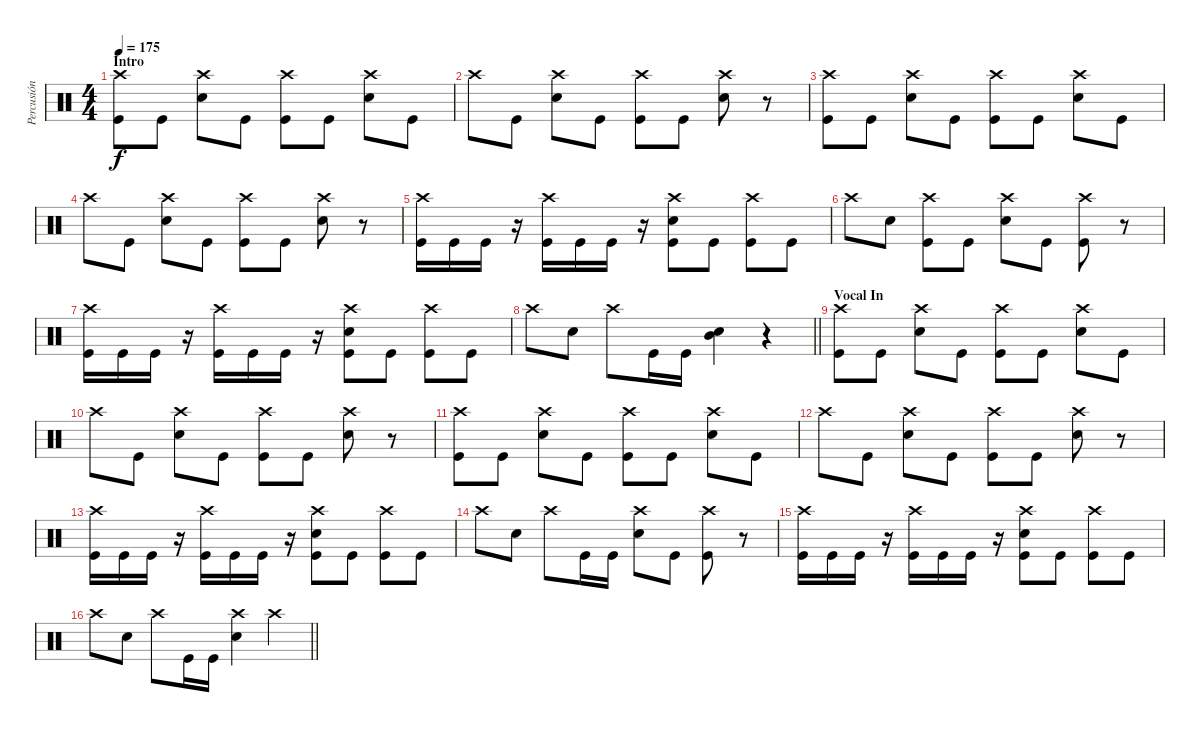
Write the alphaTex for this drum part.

\track ("Percusión" "Percusión") {instrument percussion}
\staff {score}
\articulation defaults
\ts (4 4)
\section ("" "Intro")
\tempo 175
\clef neutral
\ks c
("Crash high (hit)" "Kick (hit)").8{dy f} "Kick (hit)".8 ("Crash high (hit)" "Snare (hit) 2").8 "Kick (hit)".8 ("Crash high (hit)" "Kick (hit)").8 "Kick (hit)".8 ("Crash high (hit)" "Snare (hit) 2").8 "Kick (hit)".8 |
"Crash high (hit)".8 "Kick (hit)".8 ("Crash high (hit)" "Snare (hit) 2").8 "Kick (hit)".8 ("Crash high (hit)" "Kick (hit)").8 "Kick (hit)".8 ("Crash high (hit)" "Snare (hit) 2").8 r.8 |
("Crash high (hit)" "Kick (hit)").8 "Kick (hit)".8 ("Crash high (hit)" "Snare (hit) 2").8 "Kick (hit)".8 ("Crash high (hit)" "Kick (hit)").8 "Kick (hit)".8 ("Crash high (hit)" "Snare (hit) 2").8 "Kick (hit)".8 |
"Crash high (hit)".8 "Kick (hit)".8 ("Crash high (hit)" "Snare (hit) 2").8 "Kick (hit)".8 ("Crash high (hit)" "Kick (hit)").8 "Kick (hit)".8 ("Crash high (hit)" "Snare (hit) 2").8 r.8 |
("Crash high (hit)" "Kick (hit)").16 "Kick (hit)".16 "Kick (hit)".16 r.16 ("Crash high (hit)" "Kick (hit)").16 "Kick (hit)".16 "Kick (hit)".16 r.16 ("Crash high (hit)" "Kick (hit)" "Snare (hit) 2").8 "Kick (hit)".8 ("Crash high (hit)" "Kick (hit)").8 "Kick (hit)".8 |
"Crash high (hit)".8 "Snare (hit) 2".8 ("Crash high (hit)" "Kick (hit)").8 "Kick (hit)".8 ("Crash high (hit)" "Snare (hit) 2").8 "Kick (hit)".8 ("Crash high (hit)" "Kick (hit)").8 r.8 |
("Crash high (hit)" "Kick (hit)").16 "Kick (hit)".16 "Kick (hit)".16 r.16 ("Crash high (hit)" "Kick (hit)").16 "Kick (hit)".16 "Kick (hit)".16 r.16 ("Crash high (hit)" "Kick (hit)" "Snare (hit) 2").8 "Kick (hit)".8 ("Crash high (hit)" "Kick (hit)").8 "Kick (hit)".8 |
\barLineRight lightlight "Crash high (hit)".8 "Snare (hit) 2".8 "Crash high (hit)".8 "Kick (hit)".16 "Kick (hit)".16
("Mid Tom (hit)" "Snare (hit) 2").4 r.4 |
\section ("" "Vocal In")
("Crash high (hit)" "Kick (hit)").8 "Kick (hit)".8 ("Crash high (hit)" "Snare (hit) 2").8 "Kick (hit)".8 ("Crash high (hit)" "Kick (hit)").8 "Kick (hit)".8 ("Crash high (hit)" "Snare (hit) 2").8 "Kick (hit)".8 |
"Crash high (hit)".8 "Kick (hit)".8 ("Crash high (hit)" "Snare (hit) 2").8 "Kick (hit)".8 ("Crash high (hit)" "Kick (hit)").8 "Kick (hit)".8 ("Crash high (hit)" "Snare (hit) 2").8 r.8 |
("Crash high (hit)" "Kick (hit)").8 "Kick (hit)".8 ("Crash high (hit)" "Snare (hit) 2").8 "Kick (hit)".8 ("Crash high (hit)" "Kick (hit)").8 "Kick (hit)".8 ("Crash high (hit)" "Snare (hit) 2").8 "Kick (hit)".8 |
"Crash high (hit)".8 "Kick (hit)".8 ("Crash high (hit)" "Snare (hit) 2").8 "Kick (hit)".8 ("Crash high (hit)" "Kick (hit)").8 "Kick (hit)".8 ("Crash high (hit)" "Snare (hit) 2").8 r.8 |
("Crash high (hit)" "Kick (hit)").16 "Kick (hit)".16 "Kick (hit)".16 r.16 ("Crash high (hit)" "Kick (hit)").16 "Kick (hit)".16 "Kick (hit)".16 r.16 ("Crash high (hit)" "Kick (hit)" "Snare (hit) 2").8 "Kick (hit)".8 ("Crash high (hit)" "Kick (hit)").8 "Kick (hit)".8 |
"Crash high (hit)".8 "Snare (hit) 2".8 "Crash high (hit)".8 "Kick (hit)".16 "Kick (hit)".16 ("Crash high (hit)" "Snare (hit) 2").8 "Kick (hit)".8 ("Crash high (hit)" "Kick (hit)").8 r.8 |
("Crash high (hit)" "Kick (hit)").16 "Kick (hit)".16 "Kick (hit)".16 r.16 ("Crash high (hit)" "Kick (hit)").16 "Kick (hit)".16 "Kick (hit)".16 r.16 ("Crash high (hit)" "Kick (hit)" "Snare (hit) 2").8 "Kick (hit)".8 ("Crash high (hit)" "Kick (hit)").8 "Kick (hit)".8 |
\barLineRight lightlight "Crash high (hit)".8 "Snare (hit) 2".8 "Crash high (hit)".8 "Kick (hit)".16 "Kick (hit)".16
("Crash high (hit)" "Snare (hit) 2").4 "Crash high (hit)".4
